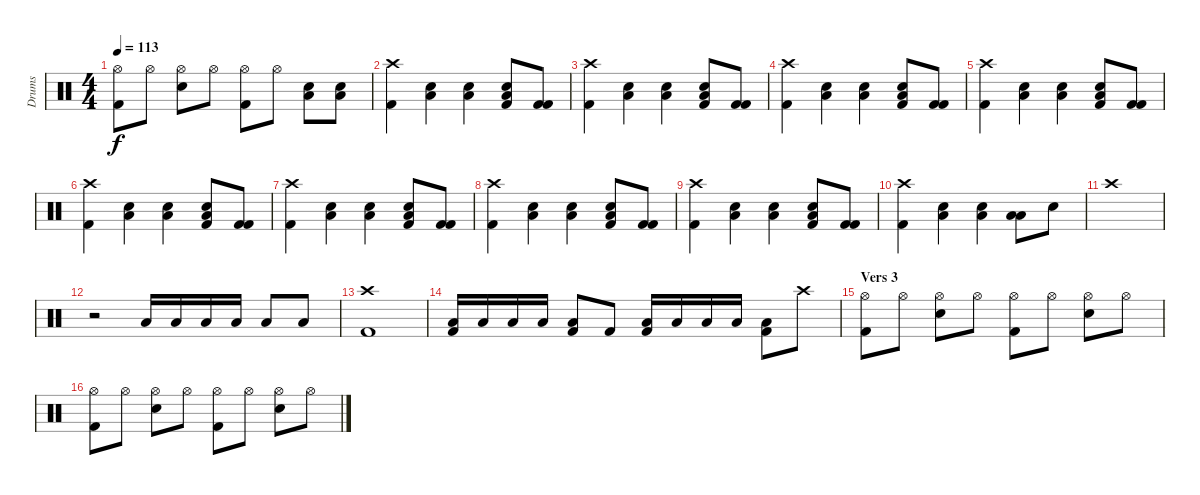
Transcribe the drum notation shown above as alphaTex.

\track ("Drums" "Drums") {instrument percussion}
\staff {score}
\articulation defaults
\ts (4 4)
\tempo 113
\clef neutral
\ks c
("Hi-Hat (open)" "Kick (hit) 2").8{dy f} "Hi-Hat (open)".8 ("Hi-Hat (open)" "Electric Snare (hit)").8 "Hi-Hat (open)".8 ("Hi-Hat (open)" "Kick (hit) 2").8 "Hi-Hat (open)".8 ("Electric Snare (hit)" "Low Tom (hit)").8 ("Electric Snare (hit)" "Low Tom (hit)").8 |
("Crash high (hit)" "Kick (hit) 2").4 ("Low Tom (hit)" "Electric Snare (hit)").4 ("Low Tom (hit)" "Electric Snare (hit)").4 ("Low Tom (hit)" "Kick (hit) 2" "Electric Snare (hit)").8 ("Kick (hit) 2" "Kick (hit) 2").8 |
("Crash high (hit)" "Kick (hit) 2").4 ("Low Tom (hit)" "Electric Snare (hit)").4 ("Low Tom (hit)" "Electric Snare (hit)").4 ("Low Tom (hit)" "Kick (hit) 2" "Electric Snare (hit)").8 ("Kick (hit) 2" "Kick (hit) 2").8 |
("Crash high (hit)" "Kick (hit) 2").4 ("Low Tom (hit)" "Electric Snare (hit)").4 ("Low Tom (hit)" "Electric Snare (hit)").4 ("Low Tom (hit)" "Kick (hit) 2" "Electric Snare (hit)").8 ("Kick (hit) 2" "Kick (hit) 2").8 |
("Crash high (hit)" "Kick (hit) 2").4 ("Low Tom (hit)" "Electric Snare (hit)").4 ("Low Tom (hit)" "Electric Snare (hit)").4 ("Low Tom (hit)" "Kick (hit) 2" "Electric Snare (hit)").8 ("Kick (hit) 2" "Kick (hit) 2").8 |
("Crash high (hit)" "Kick (hit) 2").4 ("Low Tom (hit)" "Electric Snare (hit)").4 ("Low Tom (hit)" "Electric Snare (hit)").4 ("Low Tom (hit)" "Kick (hit) 2" "Electric Snare (hit)").8 ("Kick (hit) 2" "Kick (hit) 2").8 |
("Crash high (hit)" "Kick (hit) 2").4 ("Low Tom (hit)" "Electric Snare (hit)").4 ("Low Tom (hit)" "Electric Snare (hit)").4 ("Low Tom (hit)" "Kick (hit) 2" "Electric Snare (hit)").8 ("Kick (hit) 2" "Kick (hit) 2").8 |
("Crash high (hit)" "Kick (hit) 2").4 ("Low Tom (hit)" "Electric Snare (hit)").4 ("Low Tom (hit)" "Electric Snare (hit)").4 ("Low Tom (hit)" "Kick (hit) 2" "Electric Snare (hit)").8 ("Kick (hit) 2" "Kick (hit) 2").8 |
("Crash high (hit)" "Kick (hit) 2").4 ("Low Tom (hit)" "Electric Snare (hit)").4 ("Low Tom (hit)" "Electric Snare (hit)").4 ("Low Tom (hit)" "Kick (hit) 2" "Electric Snare (hit)").8 ("Kick (hit) 2" "Kick (hit) 2").8 |
("Crash high (hit)" "Kick (hit) 2").4 ("Low Tom (hit)" "Electric Snare (hit)").4 ("Low Tom (hit)" "Electric Snare (hit)").4 ("Low Tom (hit)" "Low Tom (hit)").8 "Electric Snare (hit)".8 |
"Crash high (hit)".1 |
r.2 "Low Tom (hit)".16 "Low Tom (hit)".16 "Low Tom (hit)".16 "Low Tom (hit)".16 "Low Tom (hit)".8 "Low Tom (hit)".8 |
("Crash high (hit)" "Kick (hit) 2").1 |
("Low Tom (hit)" "Kick (hit) 2").16 "Low Tom (hit)".16 "Low Tom (hit)".16 "Low Tom (hit)".16 ("Low Tom (hit)" "Kick (hit) 2").8 "Kick (hit) 2".8 ("Low Tom (hit)" "Kick (hit) 2").16 "Low Tom (hit)".16 "Low Tom (hit)".16 "Low Tom (hit)".16 ("Low Tom (hit)" "Kick (hit) 2").8 "Crash high (hit)".8 |
\section ("" "Vers 3")
("Hi-Hat (open)" "Kick (hit) 2").8 "Hi-Hat (open)".8 ("Hi-Hat (open)" "Electric Snare (hit)").8 "Hi-Hat (open)".8 ("Hi-Hat (open)" "Kick (hit) 2").8 "Hi-Hat (open)".8 ("Hi-Hat (open)" "Electric Snare (hit)").8 "Hi-Hat (open)".8 |
("Hi-Hat (open)" "Kick (hit) 2").8 "Hi-Hat (open)".8 ("Hi-Hat (open)" "Electric Snare (hit)").8 "Hi-Hat (open)".8 ("Hi-Hat (open)" "Kick (hit) 2").8 "Hi-Hat (open)".8 ("Hi-Hat (open)" "Electric Snare (hit)").8 "Hi-Hat (open)".8
